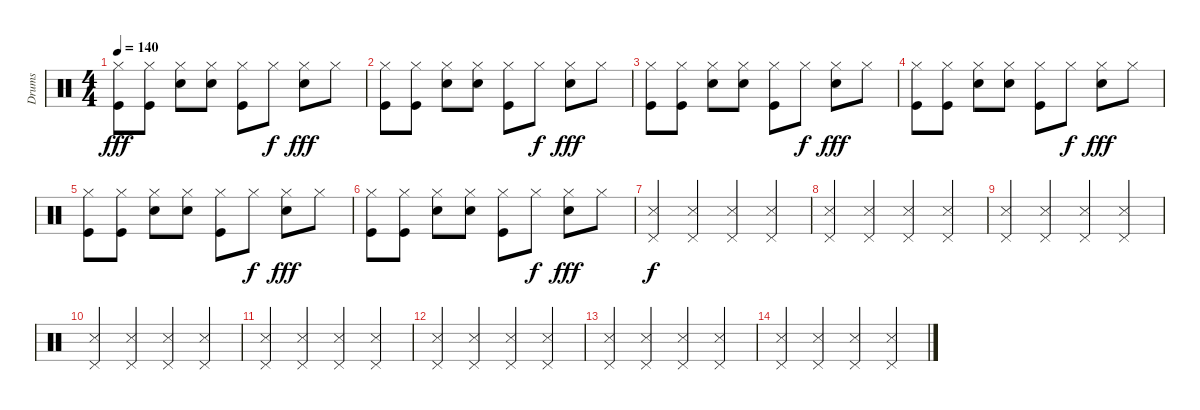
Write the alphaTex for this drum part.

\track ("Drums" "Drums") {instrument percussion}
\staff {score}
\articulation defaults
\ts (4 4)
\tempo 140
\clef neutral
\ks c
("Kick (hit)" "Hi-Hat (closed)").8{dy fff} ("Kick (hit)" "Hi-Hat (closed)").8 ("Snare (hit) 2" "Hi-Hat (closed)").8 ("Snare (hit) 2" "Hi-Hat (closed)").8 ("Kick (hit)" "Hi-Hat (closed)").8 "Hi-Hat (closed)".8{dy f} ("Snare (hit) 2" "Hi-Hat (closed)").8{dy fff} "Hi-Hat (closed)".8 |
("Kick (hit)" "Hi-Hat (closed)").8 ("Kick (hit)" "Hi-Hat (closed)").8 ("Snare (hit) 2" "Hi-Hat (closed)").8 ("Snare (hit) 2" "Hi-Hat (closed)").8 ("Kick (hit)" "Hi-Hat (closed)").8 "Hi-Hat (closed)".8{dy f} ("Snare (hit) 2" "Hi-Hat (closed)").8{dy fff} "Hi-Hat (closed)".8 |
("Kick (hit)" "Hi-Hat (closed)").8 ("Kick (hit)" "Hi-Hat (closed)").8 ("Snare (hit) 2" "Hi-Hat (closed)").8 ("Snare (hit) 2" "Hi-Hat (closed)").8 ("Kick (hit)" "Hi-Hat (closed)").8 "Hi-Hat (closed)".8{dy f} ("Snare (hit) 2" "Hi-Hat (closed)").8{dy fff} "Hi-Hat (closed)".8 |
("Kick (hit)" "Hi-Hat (closed)").8 ("Kick (hit)" "Hi-Hat (closed)").8 ("Snare (hit) 2" "Hi-Hat (closed)").8 ("Snare (hit) 2" "Hi-Hat (closed)").8 ("Kick (hit)" "Hi-Hat (closed)").8 "Hi-Hat (closed)".8{dy f} ("Snare (hit) 2" "Hi-Hat (closed)").8{dy fff} "Hi-Hat (closed)".8 |
("Kick (hit)" "Hi-Hat (closed)").8 ("Kick (hit)" "Hi-Hat (closed)").8 ("Snare (hit) 2" "Hi-Hat (closed)").8 ("Snare (hit) 2" "Hi-Hat (closed)").8 ("Kick (hit)" "Hi-Hat (closed)").8 "Hi-Hat (closed)".8{dy f} ("Snare (hit) 2" "Hi-Hat (closed)").8{dy fff} "Hi-Hat (closed)".8 |
("Kick (hit)" "Hi-Hat (closed)").8 ("Kick (hit)" "Hi-Hat (closed)").8 ("Snare (hit) 2" "Hi-Hat (closed)").8 ("Snare (hit) 2" "Hi-Hat (closed)").8 ("Kick (hit)" "Hi-Hat (closed)").8 "Hi-Hat (closed)".8{dy f} ("Snare (hit) 2" "Hi-Hat (closed)").8{dy fff} "Hi-Hat (closed)".8 |
("Snare (side stick) 3" "Pedal Hi-Hat (hit)").4{dy f} ("Snare (side stick) 3" "Pedal Hi-Hat (hit)").4 ("Snare (side stick) 3" "Pedal Hi-Hat (hit)").4 ("Snare (side stick) 3" "Pedal Hi-Hat (hit)").4 |
("Snare (side stick) 3" "Pedal Hi-Hat (hit)").4 ("Snare (side stick) 3" "Pedal Hi-Hat (hit)").4 ("Snare (side stick) 3" "Pedal Hi-Hat (hit)").4 ("Snare (side stick) 3" "Pedal Hi-Hat (hit)").4 |
("Snare (side stick) 3" "Pedal Hi-Hat (hit)").4 ("Snare (side stick) 3" "Pedal Hi-Hat (hit)").4 ("Snare (side stick) 3" "Pedal Hi-Hat (hit)").4 ("Snare (side stick) 3" "Pedal Hi-Hat (hit)").4 |
("Snare (side stick) 3" "Pedal Hi-Hat (hit)").4 ("Snare (side stick) 3" "Pedal Hi-Hat (hit)").4 ("Snare (side stick) 3" "Pedal Hi-Hat (hit)").4 ("Snare (side stick) 3" "Pedal Hi-Hat (hit)").4 |
("Snare (side stick) 3" "Pedal Hi-Hat (hit)").4 ("Snare (side stick) 3" "Pedal Hi-Hat (hit)").4 ("Snare (side stick) 3" "Pedal Hi-Hat (hit)").4 ("Snare (side stick) 3" "Pedal Hi-Hat (hit)").4 |
("Snare (side stick) 3" "Pedal Hi-Hat (hit)").4 ("Snare (side stick) 3" "Pedal Hi-Hat (hit)").4 ("Snare (side stick) 3" "Pedal Hi-Hat (hit)").4 ("Snare (side stick) 3" "Pedal Hi-Hat (hit)").4 |
("Snare (side stick) 3" "Pedal Hi-Hat (hit)").4 ("Snare (side stick) 3" "Pedal Hi-Hat (hit)").4 ("Snare (side stick) 3" "Pedal Hi-Hat (hit)").4 ("Snare (side stick) 3" "Pedal Hi-Hat (hit)").4 |
("Snare (side stick) 3" "Pedal Hi-Hat (hit)").4 ("Snare (side stick) 3" "Pedal Hi-Hat (hit)").4 ("Snare (side stick) 3" "Pedal Hi-Hat (hit)").4 ("Snare (side stick) 3" "Pedal Hi-Hat (hit)").4
